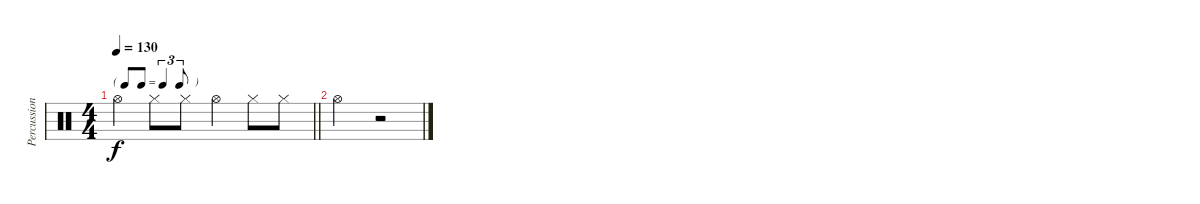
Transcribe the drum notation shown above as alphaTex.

\track ("Percussions" "Percussion") {instrument percussion}
\staff {score}
\articulation defaults
\ts (4 4)
\tf triplet8th
\tempo 130
\clef neutral
\barLineRight lightlight
\ks c "Hi-Hat (open)".4{dy f} "Hi-Hat (closed)".8 "Hi-Hat (closed)".8 "Hi-Hat (open)".4 "Hi-Hat (closed)".8 "Hi-Hat (closed)".8
|
"Hi-Hat (open)".2 r.2
